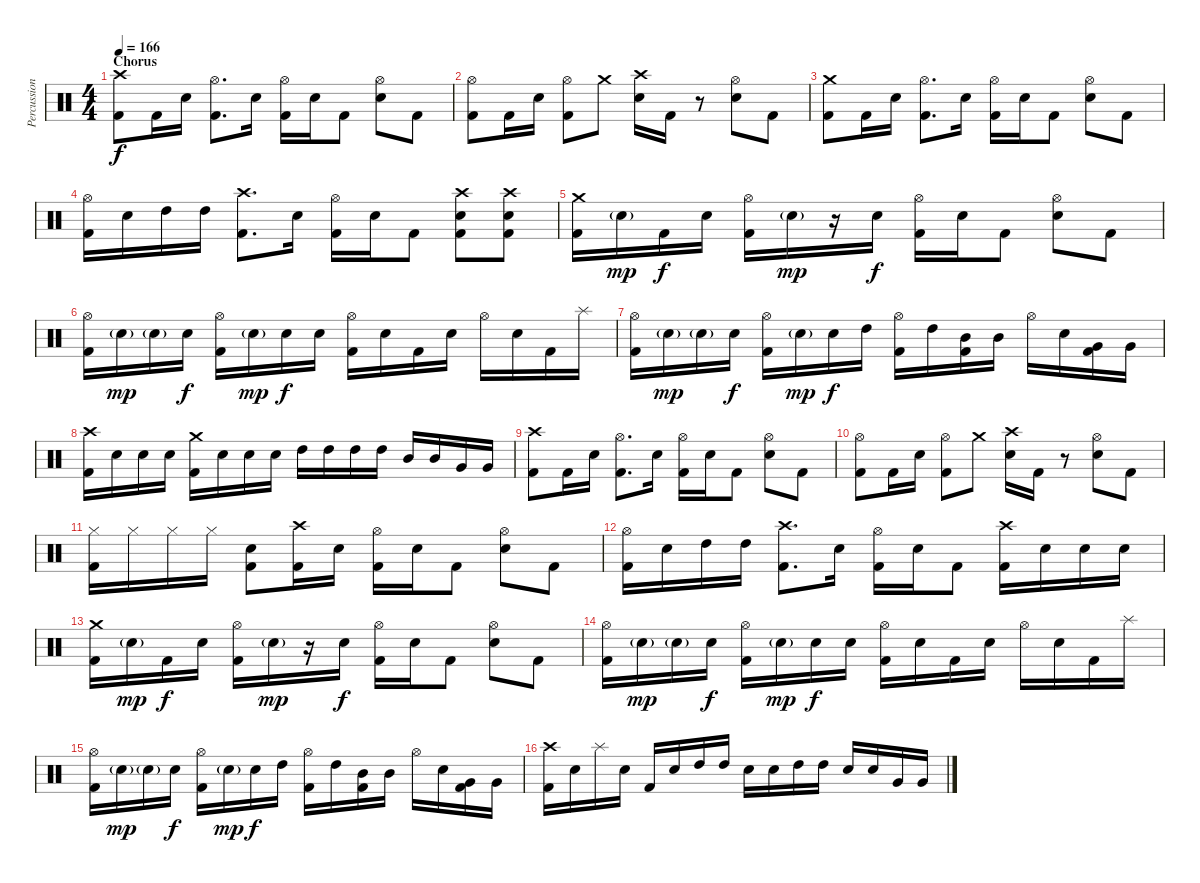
\track ("Percussion" "Percussion") {instrument percussion}
\staff {score}
\articulation defaults
\ts (4 4)
\section ("" "Chorus")
\tempo 166
\clef neutral
\ks c
("Crash high (hit)" "Kick (hit) 2").8{dy f} "Kick (hit) 2".16 "Electric Snare (hit)".16 ("Hi-Hat (open)" "Kick (hit) 2").8{d} "Electric Snare (hit)".16 ("Hi-Hat (open)" "Kick (hit) 2").16 "Electric Snare (hit)".16 "Kick (hit) 2".8 ("Hi-Hat (open)" "Electric Snare (hit)").8 "Kick (hit) 2".8 |
("Hi-Hat (open)" "Kick (hit) 2").8 "Kick (hit) 2".16 "Electric Snare (hit)".16 ("Hi-Hat (open)" "Kick (hit) 2").8 "Crash medium (hit)".8 ("Crash high (hit)" "Electric Snare (hit)").16 "Kick (hit) 2".16 r.8 ("Hi-Hat (open)" "Electric Snare (hit)").8 "Kick (hit) 2".8 |
("Crash medium (hit)" "Kick (hit) 2").8 "Kick (hit) 2".16 "Electric Snare (hit)".16 ("Hi-Hat (open)" "Kick (hit) 2").8{d} "Electric Snare (hit)".16 ("Hi-Hat (open)" "Kick (hit) 2").16 "Electric Snare (hit)".16 "Kick (hit) 2".8 ("Hi-Hat (open)" "Electric Snare (hit)").8 "Kick (hit) 2".8 |
("Hi-Hat (open)" "Kick (hit) 2").16 "Electric Snare (hit)".16 "High Tom (hit)".16 "High Tom (hit)".16 ("Crash high (hit)" "Kick (hit) 2").8{d} "Electric Snare (hit)".16 ("Hi-Hat (open)" "Kick (hit) 2").16 "Electric Snare (hit)".16 "Kick (hit) 2".8 ("Crash high (hit)" "Electric Snare (hit)" "Kick (hit) 2").8 ("Crash high (hit)" "Electric Snare (hit)" "Kick (hit) 2").8 |
("Crash medium (hit)" "Kick (hit) 2").16 "Electric Snare (hit)"{g}.16{dy mp} "Kick (hit) 2".16{dy f} "Electric Snare (hit)".16 ("Hi-Hat (open)" "Kick (hit) 2").16 "Electric Snare (hit)"{g}.16{dy mp} r.16 "Electric Snare (hit)".16{dy f} ("Hi-Hat (open)" "Kick (hit) 2").16 "Electric Snare (hit)".16 "Kick (hit) 2".8 ("Hi-Hat (open)" "Electric Snare (hit)").8 "Kick (hit) 2".8 |
("Hi-Hat (open)" "Kick (hit) 2").16 "Electric Snare (hit)"{g}.16{dy mp} "Electric Snare (hit)"{g}.16 "Electric Snare (hit)".16{dy f} ("Hi-Hat (open)" "Kick (hit) 2").16 "Electric Snare (hit)"{g}.16{dy mp} "Electric Snare (hit)".16{dy f} "Electric Snare (hit)".16 ("Hi-Hat (open)" "Kick (hit) 2").16 "Electric Snare (hit)".16 "Kick (hit) 2".16 "Electric Snare (hit)".16 "Hi-Hat (open)".16 "Electric Snare (hit)".16 "Kick (hit) 2".16 "Splash (hit)".16 |
("Hi-Hat (open)" "Kick (hit) 2").16 "Electric Snare (hit)"{g}.16{dy mp} "Electric Snare (hit)"{g}.16 "Electric Snare (hit)".16{dy f} ("Hi-Hat (open)" "Kick (hit) 2").16 "Electric Snare (hit)"{g}.16{dy mp} "Electric Snare (hit)".16{dy f} "High Tom (hit)".16 ("Hi-Hat (open)" "Kick (hit) 2").16 "High Tom (hit)".16 ("Mid Tom (hit)" "Kick (hit) 2").16 "Mid Tom (hit)".16 "Hi-Hat (open)".16 "Electric Snare (hit)".16 ("Very Low Tom (hit)" "Kick (hit) 2").16 "Very Low Tom (hit)".16 |
("Crash high (hit)" "Kick (hit) 2").16 "Electric Snare (hit)".16 "Electric Snare (hit)".16 "Electric Snare (hit)".16 ("Crash medium (hit)" "Kick (hit) 2").16 "Electric Snare (hit)".16 "Electric Snare (hit)".16 "Electric Snare (hit)".16 "High Tom (hit)".16 "High Tom (hit)".16 "High Tom (hit)".16 "High Tom (hit)".16 "Mid Tom (hit)".16 "Mid Tom (hit)".16 "Very Low Tom (hit)".16 "Very Low Tom (hit)".16 |
("Crash high (hit)" "Kick (hit) 2").8 "Kick (hit) 2".16 "Electric Snare (hit)".16 ("Hi-Hat (open)" "Kick (hit) 2").8{d} "Electric Snare (hit)".16 ("Hi-Hat (open)" "Kick (hit) 2").16 "Electric Snare (hit)".16 "Kick (hit) 2".8 ("Hi-Hat (open)" "Electric Snare (hit)").8 "Kick (hit) 2".8 |
("Hi-Hat (open)" "Kick (hit) 2").8 "Kick (hit) 2".16 "Electric Snare (hit)".16 ("Hi-Hat (open)" "Kick (hit) 2").8 "Crash medium (hit)".8 ("Crash high (hit)" "Electric Snare (hit)").16 "Kick (hit) 2".16 r.8 ("Hi-Hat (open)" "Electric Snare (hit)").8 "Kick (hit) 2".8 |
("Hi-Hat (closed)" "Kick (hit) 2").16 "Hi-Hat (closed)".16 "Hi-Hat (closed)".16 "Hi-Hat (closed)".16 ("Electric Snare (hit)" "Kick (hit) 2").8 ("Crash high (hit)" "Kick (hit) 2").16 "Electric Snare (hit)".16 ("Hi-Hat (open)" "Kick (hit) 2").16 "Electric Snare (hit)".16 "Kick (hit) 2".8 ("Hi-Hat (open)" "Electric Snare (hit)").8 "Kick (hit) 2".8 |
("Hi-Hat (open)" "Kick (hit) 2").16 "Electric Snare (hit)".16 "High Tom (hit)".16 "High Tom (hit)".16 ("Crash high (hit)" "Kick (hit) 2").8{d} "Electric Snare (hit)".16 ("Hi-Hat (open)" "Kick (hit) 2").16 "Electric Snare (hit)".16 "Kick (hit) 2".8 ("Crash high (hit)" "Kick (hit) 2").16 "Electric Snare (hit)".16 "Electric Snare (hit)".16 "Electric Snare (hit)".16 |
("Crash medium (hit)" "Kick (hit) 2").16 "Electric Snare (hit)"{g}.16{dy mp} "Kick (hit) 2".16{dy f} "Electric Snare (hit)".16 ("Hi-Hat (open)" "Kick (hit) 2").16 "Electric Snare (hit)"{g}.16{dy mp} r.16 "Electric Snare (hit)".16{dy f} ("Hi-Hat (open)" "Kick (hit) 2").16 "Electric Snare (hit)".16 "Kick (hit) 2".8 ("Hi-Hat (open)" "Electric Snare (hit)").8 "Kick (hit) 2".8 |
("Hi-Hat (open)" "Kick (hit) 2").16 "Electric Snare (hit)"{g}.16{dy mp} "Electric Snare (hit)"{g}.16 "Electric Snare (hit)".16{dy f} ("Hi-Hat (open)" "Kick (hit) 2").16 "Electric Snare (hit)"{g}.16{dy mp} "Electric Snare (hit)".16{dy f} "Electric Snare (hit)".16 ("Hi-Hat (open)" "Kick (hit) 2").16 "Electric Snare (hit)".16 "Kick (hit) 2".16 "Electric Snare (hit)".16 "Hi-Hat (open)".16 "Electric Snare (hit)".16 "Kick (hit) 2".16 "Splash (hit)".16 |
("Hi-Hat (open)" "Kick (hit) 2").16 "Electric Snare (hit)"{g}.16{dy mp} "Electric Snare (hit)"{g}.16 "Electric Snare (hit)".16{dy f} ("Hi-Hat (open)" "Kick (hit) 2").16 "Electric Snare (hit)"{g}.16{dy mp} "Electric Snare (hit)".16{dy f} "High Tom (hit)".16 ("Hi-Hat (open)" "Kick (hit) 2").16 "High Tom (hit)".16 ("Mid Tom (hit)" "Kick (hit) 2").16 "Mid Tom (hit)".16 "Hi-Hat (open)".16 "Electric Snare (hit)".16 ("Very Low Tom (hit)" "Kick (hit) 2").16 "Very Low Tom (hit)".16 |
("Crash high (hit)" "Kick (hit) 2").16 "Electric Snare (hit)".16 "Splash (hit)".16 "Electric Snare (hit)".16 "Kick (hit) 2".16 "Electric Snare (hit)".16 "High Tom (hit)".16 "High Tom (hit)".16 "Electric Snare (hit)".16 "Electric Snare (hit)".16 "High Tom (hit)".16 "High Tom (hit)".16 "Electric Snare (hit)".16 "Electric Snare (hit)".16 "Very Low Tom (hit)".16 "Very Low Tom (hit)".16
